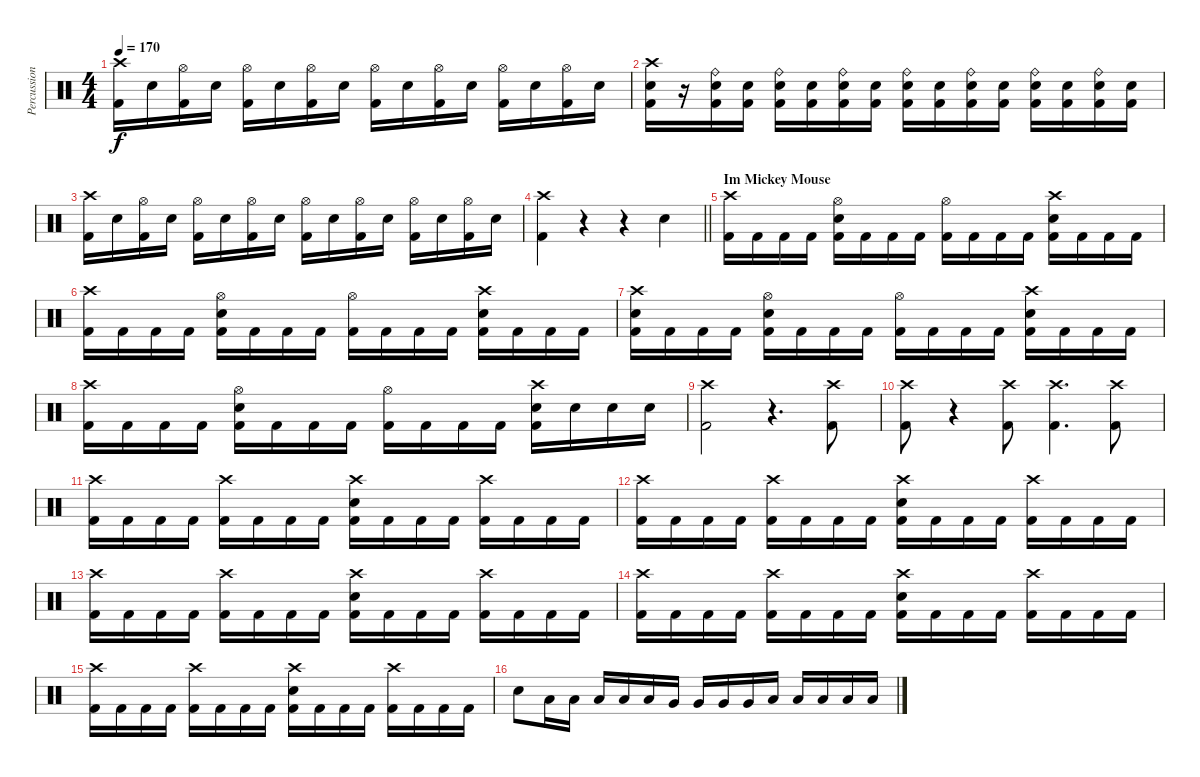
\track ("Percussion" "Percussion") {instrument percussion}
\staff {score}
\articulation defaults
\ts (4 4)
\tempo 170
\clef neutral
\ks c
("Crash high (hit)" "Kick (hit) 2").16{dy f} "Electric Snare (hit)".16 ("Hi-Hat (open)" "Kick (hit) 2").16 "Electric Snare (hit)".16 ("Hi-Hat (open)" "Kick (hit) 2").16 "Electric Snare (hit)".16 ("Hi-Hat (open)" "Kick (hit) 2").16 "Electric Snare (hit)".16 ("Hi-Hat (open)" "Kick (hit) 2").16 "Electric Snare (hit)".16 ("Hi-Hat (open)" "Kick (hit) 2").16 "Electric Snare (hit)".16 ("Hi-Hat (open)" "Kick (hit) 2").16 "Electric Snare (hit)".16 ("Hi-Hat (open)" "Kick (hit) 2").16 "Electric Snare (hit)".16 |
("Crash high (hit)" "Electric Snare (hit)" "Kick (hit) 2").16 r.16 ("Ride (bell)" "Electric Snare (hit)" "Kick (hit) 2").16 ("Electric Snare (hit)" "Kick (hit) 2").16 ("Ride (bell)" "Electric Snare (hit)" "Kick (hit) 2").16 ("Electric Snare (hit)" "Kick (hit) 2").16 ("Ride (bell)" "Electric Snare (hit)" "Kick (hit) 2").16 ("Electric Snare (hit)" "Kick (hit) 2").16 ("Ride (bell)" "Electric Snare (hit)" "Kick (hit) 2").16 ("Electric Snare (hit)" "Kick (hit) 2").16 ("Ride (bell)" "Electric Snare (hit)" "Kick (hit) 2").16 ("Electric Snare (hit)" "Kick (hit) 2").16 ("Ride (bell)" "Electric Snare (hit)" "Kick (hit) 2").16 ("Electric Snare (hit)" "Kick (hit) 2").16 ("Ride (bell)" "Electric Snare (hit)" "Kick (hit) 2").16 ("Electric Snare (hit)" "Kick (hit) 2").16 |
("Crash high (hit)" "Kick (hit) 2").16 "Electric Snare (hit)".16 ("Hi-Hat (open)" "Kick (hit) 2").16 "Electric Snare (hit)".16 ("Hi-Hat (open)" "Kick (hit) 2").16 "Electric Snare (hit)".16 ("Hi-Hat (open)" "Kick (hit) 2").16 "Electric Snare (hit)".16 ("Hi-Hat (open)" "Kick (hit) 2").16 "Electric Snare (hit)".16 ("Hi-Hat (open)" "Kick (hit) 2").16 "Electric Snare (hit)".16 ("Hi-Hat (open)" "Kick (hit) 2").16 "Electric Snare (hit)".16 ("Hi-Hat (open)" "Kick (hit) 2").16 "Electric Snare (hit)".16 |
\barLineRight lightlight
("Crash high (hit)" "Kick (hit) 2").4 r.4 r.4 "Electric Snare (hit)".4 |
\section ("" "Im Mickey Mouse")
("Crash high (hit)" "Kick (hit) 2").16 "Kick (hit) 2".16 "Kick (hit) 2".16 "Kick (hit) 2".16 ("Hi-Hat (open)" "Electric Snare (hit)" "Kick (hit) 2").16 "Kick (hit) 2".16 "Kick (hit) 2".16 "Kick (hit) 2".16 ("Hi-Hat (open)" "Kick (hit) 2").16 "Kick (hit) 2".16 "Kick (hit) 2".16 "Kick (hit) 2".16 ("Crash high (hit)" "Electric Snare (hit)" "Kick (hit) 2").16 "Kick (hit) 2".16 "Kick (hit) 2".16 "Kick (hit) 2".16 |
("Crash high (hit)" "Kick (hit) 2").16 "Kick (hit) 2".16 "Kick (hit) 2".16 "Kick (hit) 2".16 ("Hi-Hat (open)" "Electric Snare (hit)" "Kick (hit) 2").16 "Kick (hit) 2".16 "Kick (hit) 2".16 "Kick (hit) 2".16 ("Hi-Hat (open)" "Kick (hit) 2").16 "Kick (hit) 2".16 "Kick (hit) 2".16 "Kick (hit) 2".16 ("Crash high (hit)" "Electric Snare (hit)" "Kick (hit) 2").16 "Kick (hit) 2".16 "Kick (hit) 2".16 "Kick (hit) 2".16 |
("Crash high (hit)" "Electric Snare (hit)" "Kick (hit) 2").16 "Kick (hit) 2".16 "Kick (hit) 2".16 "Kick (hit) 2".16 ("Hi-Hat (open)" "Electric Snare (hit)" "Kick (hit) 2").16 "Kick (hit) 2".16 "Kick (hit) 2".16 "Kick (hit) 2".16 ("Hi-Hat (open)" "Kick (hit) 2").16 "Kick (hit) 2".16 "Kick (hit) 2".16 "Kick (hit) 2".16 ("Crash high (hit)" "Electric Snare (hit)" "Kick (hit) 2").16 "Kick (hit) 2".16 "Kick (hit) 2".16 "Kick (hit) 2".16 |
("Crash high (hit)" "Kick (hit) 2").16 "Kick (hit) 2".16 "Kick (hit) 2".16 "Kick (hit) 2".16 ("Hi-Hat (open)" "Electric Snare (hit)" "Kick (hit) 2").16 "Kick (hit) 2".16 "Kick (hit) 2".16 "Kick (hit) 2".16 ("Hi-Hat (open)" "Kick (hit) 2").16 "Kick (hit) 2".16 "Kick (hit) 2".16 "Kick (hit) 2".16 ("Crash high (hit)" "Electric Snare (hit)" "Kick (hit) 2").16 "Electric Snare (hit)".16 "Electric Snare (hit)".16 "Electric Snare (hit)".16 |
("Crash high (hit)" "Kick (hit) 2").2 r.4{d} ("Crash high (hit)" "Kick (hit) 2").8 |
("Crash high (hit)" "Kick (hit) 2").8 r.4 ("Crash high (hit)" "Kick (hit) 2").8 ("Crash high (hit)" "Kick (hit) 2").4{d} ("Crash high (hit)" "Kick (hit) 2").8 |
("Crash high (hit)" "Kick (hit) 2").16 "Kick (hit) 2".16 "Kick (hit) 2".16 "Kick (hit) 2".16 ("Crash high (hit)" "Kick (hit) 2").16 "Kick (hit) 2".16 "Kick (hit) 2".16 "Kick (hit) 2".16 ("Crash high (hit)" "Electric Snare (hit)" "Kick (hit) 2").16 "Kick (hit) 2".16 "Kick (hit) 2".16 "Kick (hit) 2".16 ("Crash high (hit)" "Kick (hit) 2").16 "Kick (hit) 2".16 "Kick (hit) 2".16 "Kick (hit) 2".16 |
("Crash high (hit)" "Kick (hit) 2").16 "Kick (hit) 2".16 "Kick (hit) 2".16 "Kick (hit) 2".16 ("Crash high (hit)" "Kick (hit) 2").16 "Kick (hit) 2".16 "Kick (hit) 2".16 "Kick (hit) 2".16 ("Crash high (hit)" "Electric Snare (hit)" "Kick (hit) 2").16 "Kick (hit) 2".16 "Kick (hit) 2".16 "Kick (hit) 2".16 ("Crash high (hit)" "Kick (hit) 2").16 "Kick (hit) 2".16 "Kick (hit) 2".16 "Kick (hit) 2".16 |
("Crash high (hit)" "Kick (hit) 2").16 "Kick (hit) 2".16 "Kick (hit) 2".16 "Kick (hit) 2".16 ("Crash high (hit)" "Kick (hit) 2").16 "Kick (hit) 2".16 "Kick (hit) 2".16 "Kick (hit) 2".16 ("Crash high (hit)" "Electric Snare (hit)" "Kick (hit) 2").16 "Kick (hit) 2".16 "Kick (hit) 2".16 "Kick (hit) 2".16 ("Crash high (hit)" "Kick (hit) 2").16 "Kick (hit) 2".16 "Kick (hit) 2".16 "Kick (hit) 2".16 |
("Crash high (hit)" "Kick (hit) 2").16 "Kick (hit) 2".16 "Kick (hit) 2".16 "Kick (hit) 2".16 ("Crash high (hit)" "Kick (hit) 2").16 "Kick (hit) 2".16 "Kick (hit) 2".16 "Kick (hit) 2".16 ("Crash high (hit)" "Electric Snare (hit)" "Kick (hit) 2").16 "Kick (hit) 2".16 "Kick (hit) 2".16 "Kick (hit) 2".16 ("Crash high (hit)" "Kick (hit) 2").16 "Kick (hit) 2".16 "Kick (hit) 2".16 "Kick (hit) 2".16 |
("Crash high (hit)" "Kick (hit) 2").16 "Kick (hit) 2".16 "Kick (hit) 2".16 "Kick (hit) 2".16 ("Crash high (hit)" "Kick (hit) 2").16 "Kick (hit) 2".16 "Kick (hit) 2".16 "Kick (hit) 2".16 ("Crash high (hit)" "Electric Snare (hit)" "Kick (hit) 2").16 "Kick (hit) 2".16 "Kick (hit) 2".16 "Kick (hit) 2".16 ("Crash high (hit)" "Kick (hit) 2").16 "Kick (hit) 2".16 "Kick (hit) 2".16 "Kick (hit) 2".16 |
"Electric Snare (hit)".8 "Low Tom (hit)".16 "Low Tom (hit)".16 "Low Tom (hit)".16 "Low Tom (hit)".16 "Low Tom (hit)".16 "Very Low Tom (hit)".16 "Very Low Tom (hit)".16 "Very Low Tom (hit)".16 "Very Low Tom (hit)".16 "Low Floor Tom (hit)".16 "Low Floor Tom (hit)".16 "Low Floor Tom (hit)".16 "Low Floor Tom (hit)".16 "Low Floor Tom (hit)".16
